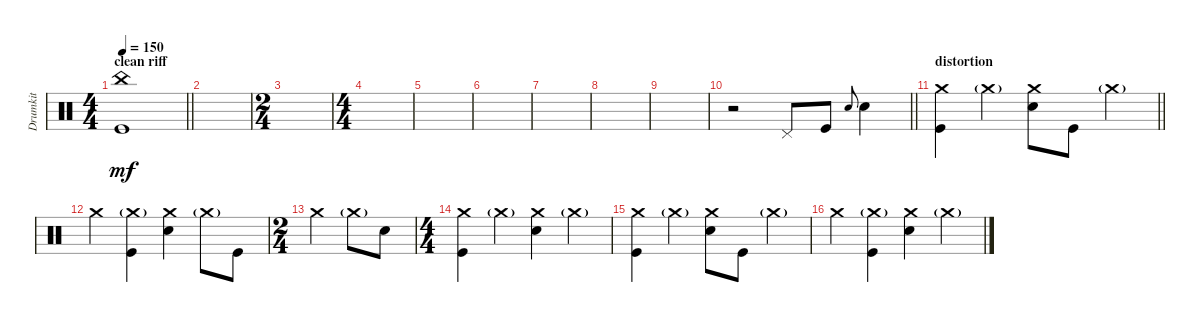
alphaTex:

\track ("Drumkit" "Drumkit") {instrument percussion}
\staff {score}
\articulation defaults
\ts (4 4)
\section ("" "clean riff")
\tempo 150
\clef neutral
\barLineRight lightlight
\ks c
("Kick (hit)" "China (hit)").1{dy mf} |
|
\ts (2 4)
|
\ts (4 4)
|
|
|
|
|
|
\barLineRight lightlight
r.2 "Pedal Hi-Hat (hit)".8 "Kick (hit)".8 "Snare (hit)".8{gr onbeat} "Snare (hit) 2".4 |
\section ("" "distortion")
\barLineRight lightlight
("Crash medium (hit)" "Kick (hit)").4 "Crash medium (hit)"{g}.4 ("Crash medium (hit)" "Snare (hit) 2").8 "Kick (hit)".8 "Crash medium (hit)"{g}.4 |
"Crash medium (hit)".4 ("Crash medium (hit)"{g} "Kick (hit)").4 ("Crash medium (hit)" "Snare (hit) 2").4 "Crash medium (hit)"{g}.8 "Kick (hit)".8 |
\ts (2 4)
"Crash medium (hit)".4 "Crash medium (hit)"{g}.8 "Snare (hit) 2".8 |
\ts (4 4)
("Kick (hit)" "Crash medium (hit)").4 "Crash medium (hit)"{g}.4 ("Crash medium (hit)" "Snare (hit) 2").4 "Crash medium (hit)"{g}.4 |
("Crash medium (hit)" "Kick (hit)").4 "Crash medium (hit)"{g}.4 ("Crash medium (hit)" "Snare (hit) 2").8 "Kick (hit)".8 "Crash medium (hit)"{g}.4 |
"Crash medium (hit)".4 ("Crash medium (hit)"{g} "Kick (hit)").4 ("Crash medium (hit)" "Snare (hit) 2").4 "Crash medium (hit)"{g}.4
